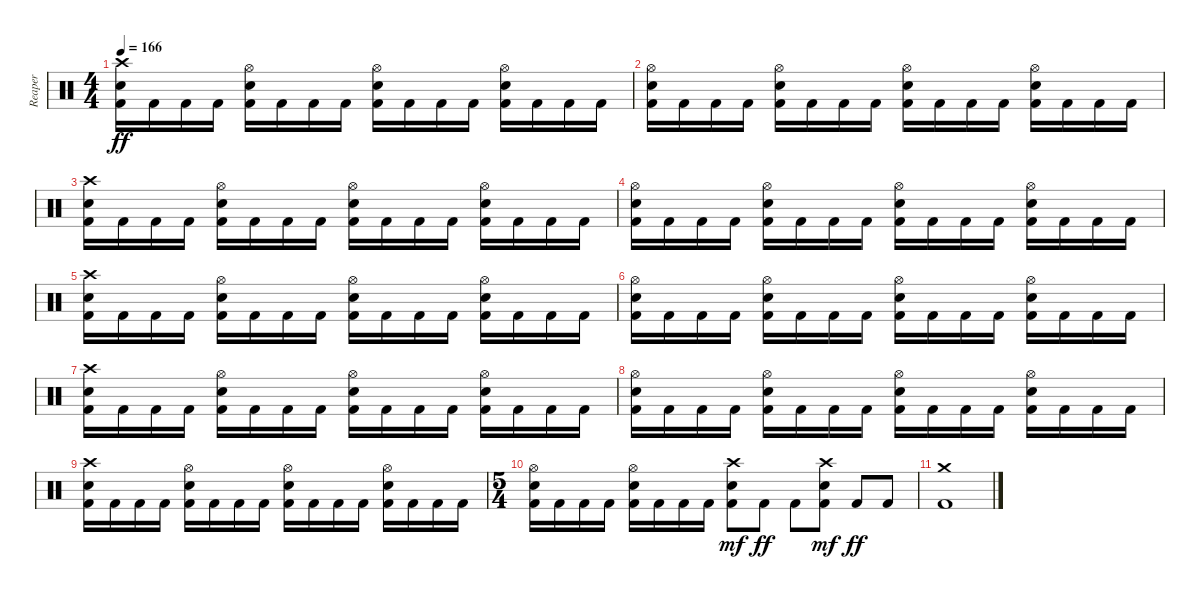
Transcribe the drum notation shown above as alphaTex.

\track ("Reaper" "Reaper") {instrument percussion}
\staff {score}
\articulation defaults
\ts (4 4)
\tempo 166
\clef neutral
\ks c
("Kick (hit) 2" "Electric Snare (hit)" "Crash high (hit)").16{dy ff} "Kick (hit) 2".16 "Kick (hit) 2".16 "Kick (hit) 2".16 ("Kick (hit) 2" "Electric Snare (hit)" "Hi-Hat (open)").16 "Kick (hit) 2".16 "Kick (hit) 2".16 "Kick (hit) 2".16 ("Kick (hit) 2" "Electric Snare (hit)" "Hi-Hat (open)").16 "Kick (hit) 2".16 "Kick (hit) 2".16 "Kick (hit) 2".16 ("Kick (hit) 2" "Electric Snare (hit)" "Hi-Hat (open)").16 "Kick (hit) 2".16 "Kick (hit) 2".16 "Kick (hit) 2".16 |
("Kick (hit) 2" "Electric Snare (hit)" "Hi-Hat (open)").16 "Kick (hit) 2".16 "Kick (hit) 2".16 "Kick (hit) 2".16 ("Kick (hit) 2" "Electric Snare (hit)" "Hi-Hat (open)").16 "Kick (hit) 2".16 "Kick (hit) 2".16 "Kick (hit) 2".16 ("Kick (hit) 2" "Electric Snare (hit)" "Hi-Hat (open)").16 "Kick (hit) 2".16 "Kick (hit) 2".16 "Kick (hit) 2".16 ("Kick (hit) 2" "Electric Snare (hit)" "Hi-Hat (open)").16 "Kick (hit) 2".16 "Kick (hit) 2".16 "Kick (hit) 2".16 |
("Kick (hit) 2" "Electric Snare (hit)" "Crash high (hit)").16 "Kick (hit) 2".16 "Kick (hit) 2".16 "Kick (hit) 2".16 ("Kick (hit) 2" "Electric Snare (hit)" "Hi-Hat (open)").16 "Kick (hit) 2".16 "Kick (hit) 2".16 "Kick (hit) 2".16 ("Kick (hit) 2" "Electric Snare (hit)" "Hi-Hat (open)").16 "Kick (hit) 2".16 "Kick (hit) 2".16 "Kick (hit) 2".16 ("Kick (hit) 2" "Electric Snare (hit)" "Hi-Hat (open)").16 "Kick (hit) 2".16 "Kick (hit) 2".16 "Kick (hit) 2".16 |
("Kick (hit) 2" "Electric Snare (hit)" "Hi-Hat (open)").16 "Kick (hit) 2".16 "Kick (hit) 2".16 "Kick (hit) 2".16 ("Kick (hit) 2" "Electric Snare (hit)" "Hi-Hat (open)").16 "Kick (hit) 2".16 "Kick (hit) 2".16 "Kick (hit) 2".16 ("Kick (hit) 2" "Electric Snare (hit)" "Hi-Hat (open)").16 "Kick (hit) 2".16 "Kick (hit) 2".16 "Kick (hit) 2".16 ("Kick (hit) 2" "Electric Snare (hit)" "Hi-Hat (open)").16 "Kick (hit) 2".16 "Kick (hit) 2".16 "Kick (hit) 2".16 |
("Kick (hit) 2" "Electric Snare (hit)" "Crash high (hit)").16 "Kick (hit) 2".16 "Kick (hit) 2".16 "Kick (hit) 2".16 ("Kick (hit) 2" "Electric Snare (hit)" "Hi-Hat (open)").16 "Kick (hit) 2".16 "Kick (hit) 2".16 "Kick (hit) 2".16 ("Kick (hit) 2" "Electric Snare (hit)" "Hi-Hat (open)").16 "Kick (hit) 2".16 "Kick (hit) 2".16 "Kick (hit) 2".16 ("Kick (hit) 2" "Electric Snare (hit)" "Hi-Hat (open)").16 "Kick (hit) 2".16 "Kick (hit) 2".16 "Kick (hit) 2".16 |
("Kick (hit) 2" "Electric Snare (hit)" "Hi-Hat (open)").16 "Kick (hit) 2".16 "Kick (hit) 2".16 "Kick (hit) 2".16 ("Kick (hit) 2" "Electric Snare (hit)" "Hi-Hat (open)").16 "Kick (hit) 2".16 "Kick (hit) 2".16 "Kick (hit) 2".16 ("Kick (hit) 2" "Electric Snare (hit)" "Hi-Hat (open)").16 "Kick (hit) 2".16 "Kick (hit) 2".16 "Kick (hit) 2".16 ("Kick (hit) 2" "Electric Snare (hit)" "Hi-Hat (open)").16 "Kick (hit) 2".16 "Kick (hit) 2".16 "Kick (hit) 2".16 |
("Kick (hit) 2" "Electric Snare (hit)" "Crash high (hit)").16 "Kick (hit) 2".16 "Kick (hit) 2".16 "Kick (hit) 2".16 ("Kick (hit) 2" "Electric Snare (hit)" "Hi-Hat (open)").16 "Kick (hit) 2".16 "Kick (hit) 2".16 "Kick (hit) 2".16 ("Kick (hit) 2" "Electric Snare (hit)" "Hi-Hat (open)").16 "Kick (hit) 2".16 "Kick (hit) 2".16 "Kick (hit) 2".16 ("Kick (hit) 2" "Electric Snare (hit)" "Hi-Hat (open)").16 "Kick (hit) 2".16 "Kick (hit) 2".16 "Kick (hit) 2".16 |
("Kick (hit) 2" "Electric Snare (hit)" "Hi-Hat (open)").16 "Kick (hit) 2".16 "Kick (hit) 2".16 "Kick (hit) 2".16 ("Kick (hit) 2" "Electric Snare (hit)" "Hi-Hat (open)").16 "Kick (hit) 2".16 "Kick (hit) 2".16 "Kick (hit) 2".16 ("Kick (hit) 2" "Electric Snare (hit)" "Hi-Hat (open)").16 "Kick (hit) 2".16 "Kick (hit) 2".16 "Kick (hit) 2".16 ("Kick (hit) 2" "Electric Snare (hit)" "Hi-Hat (open)").16 "Kick (hit) 2".16 "Kick (hit) 2".16 "Kick (hit) 2".16 |
("Kick (hit) 2" "Electric Snare (hit)" "Crash high (hit)").16 "Kick (hit) 2".16 "Kick (hit) 2".16 "Kick (hit) 2".16 ("Kick (hit) 2" "Electric Snare (hit)" "Hi-Hat (open)").16 "Kick (hit) 2".16 "Kick (hit) 2".16 "Kick (hit) 2".16 ("Kick (hit) 2" "Electric Snare (hit)" "Hi-Hat (open)").16 "Kick (hit) 2".16 "Kick (hit) 2".16 "Kick (hit) 2".16 ("Kick (hit) 2" "Electric Snare (hit)" "Hi-Hat (open)").16 "Kick (hit) 2".16 "Kick (hit) 2".16 "Kick (hit) 2".16 |
\ts (5 4)
("Kick (hit) 2" "Electric Snare (hit)" "Hi-Hat (open)").16 "Kick (hit) 2".16 "Kick (hit) 2".16 "Kick (hit) 2".16 ("Kick (hit) 2" "Electric Snare (hit)" "Hi-Hat (open)").16 "Kick (hit) 2".16 "Kick (hit) 2".16 "Kick (hit) 2".16 ("Kick (hit) 2" "Electric Snare (hit)" "Crash high (hit)").8{dy mf} "Kick (hit) 2".8{dy ff} "Kick (hit) 2".8 ("Kick (hit) 2" "Electric Snare (hit)" "Crash high (hit)").8{dy mf} "Kick (hit) 2".8{dy ff} "Kick (hit) 2".8 |
("Kick (hit) 2" "Crash medium (hit)").1
